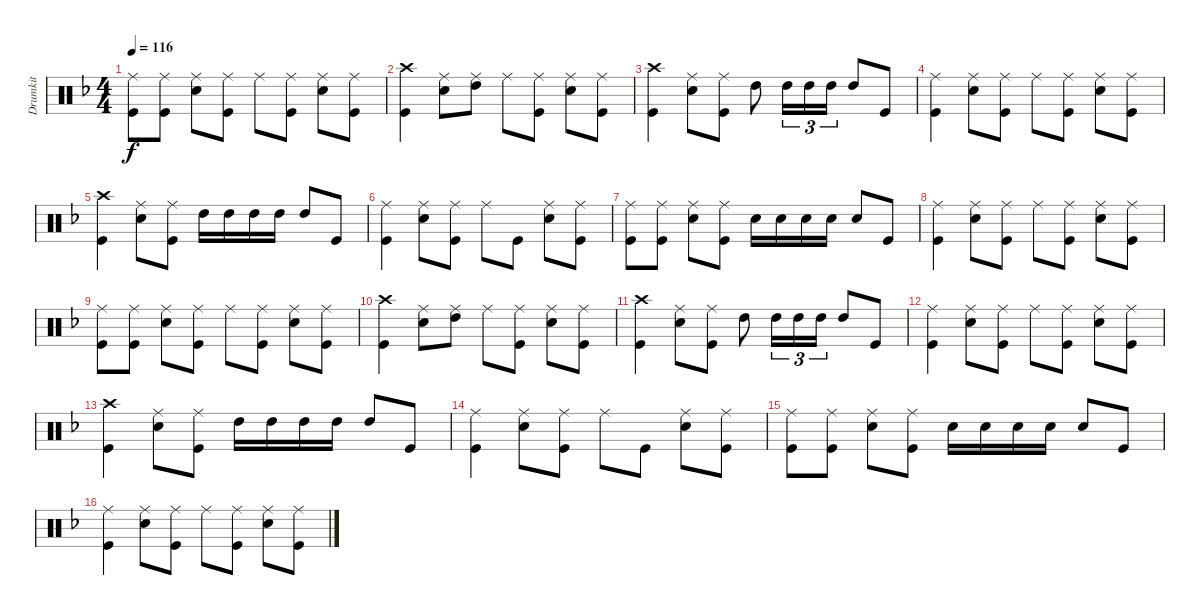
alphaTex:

\track ("Drumkit" "Drumkit") {instrument percussion}
\staff {score}
\articulation defaults
\ts (4 4)
\tempo 116
\clef neutral
\ks dminor
("Ride (middle)" "Kick (hit)").8{dy f} ("Ride (middle)" "Kick (hit)").8 ("Ride (middle)" "Snare (hit) 2").8 ("Ride (middle)" "Kick (hit)").8 "Ride (middle)".8 ("Ride (middle)" "Kick (hit)").8 ("Ride (middle)" "Snare (hit) 2").8 ("Ride (middle)" "Kick (hit)").8 |
("Crash high (hit)" "Kick (hit)").4 ("Ride (middle)" "Snare (hit) 2").8 ("Ride (middle)" "High Tom (hit)").8 "Ride (middle)".8 ("Ride (middle)" "Kick (hit)").8 ("Ride (middle)" "Snare (hit) 2").8 ("Ride (middle)" "Kick (hit)").8 |
("Crash high (hit)" "Kick (hit)").4 ("Ride (middle)" "Snare (hit) 2").8 ("Ride (middle)" "Kick (hit)").8 "High Tom (hit)".8 "High Tom (hit)".16{tu (3 2)} "High Tom (hit)".16{tu (3 2)} "High Tom (hit)".16{tu (3 2)} "High Tom (hit)".8 "Kick (hit)".8 |
("Ride (middle)" "Kick (hit)").4 ("Ride (middle)" "Snare (hit) 2").8 ("Ride (middle)" "Kick (hit)").8 "Ride (middle)".8 ("Ride (middle)" "Kick (hit)").8 ("Ride (middle)" "Snare (hit) 2").8 ("Ride (middle)" "Kick (hit)").8 |
("Crash high (hit)" "Kick (hit)").4 ("Ride (middle)" "Snare (hit) 2").8 ("Ride (middle)" "Kick (hit)").8 "High Tom (hit)".16 "High Tom (hit)".16 "High Tom (hit)".16 "High Tom (hit)".16 "High Tom (hit)".8 "Kick (hit)".8 |
("Ride (middle)" "Kick (hit)").4 ("Ride (middle)" "Snare (hit) 2").8 ("Ride (middle)" "Kick (hit)").8 "Ride (middle)".8 "Kick (hit)".8 ("Ride (middle)" "Snare (hit) 2").8 ("Ride (middle)" "Kick (hit)").8 |
("Ride (middle)" "Kick (hit)").8 ("Ride (middle)" "Kick (hit)").8 ("Ride (middle)" "Snare (hit) 2").8 ("Ride (middle)" "Kick (hit)").8 "Snare (hit) 2".16 "Snare (hit) 2".16 "Snare (hit) 2".16 "Snare (hit) 2".16 "Snare (hit) 2".8 "Kick (hit)".8 |
("Ride (middle)" "Kick (hit)").4 ("Ride (middle)" "Snare (hit) 2").8 ("Ride (middle)" "Kick (hit)").8 "Ride (middle)".8 ("Ride (middle)" "Kick (hit)").8 ("Ride (middle)" "Snare (hit) 2").8 ("Ride (middle)" "Kick (hit)").8 |
("Ride (middle)" "Kick (hit)").8 ("Ride (middle)" "Kick (hit)").8 ("Ride (middle)" "Snare (hit) 2").8 ("Ride (middle)" "Kick (hit)").8 "Ride (middle)".8 ("Ride (middle)" "Kick (hit)").8 ("Ride (middle)" "Snare (hit) 2").8 ("Ride (middle)" "Kick (hit)").8 |
("Crash high (hit)" "Kick (hit)").4 ("Ride (middle)" "Snare (hit) 2").8 ("Ride (middle)" "High Tom (hit)").8 "Ride (middle)".8 ("Ride (middle)" "Kick (hit)").8 ("Ride (middle)" "Snare (hit) 2").8 ("Ride (middle)" "Kick (hit)").8 |
("Crash high (hit)" "Kick (hit)").4 ("Ride (middle)" "Snare (hit) 2").8 ("Ride (middle)" "Kick (hit)").8 "High Tom (hit)".8 "High Tom (hit)".16{tu (3 2)} "High Tom (hit)".16{tu (3 2)} "High Tom (hit)".16{tu (3 2)} "High Tom (hit)".8 "Kick (hit)".8 |
("Ride (middle)" "Kick (hit)").4 ("Ride (middle)" "Snare (hit) 2").8 ("Ride (middle)" "Kick (hit)").8 "Ride (middle)".8 ("Ride (middle)" "Kick (hit)").8 ("Ride (middle)" "Snare (hit) 2").8 ("Ride (middle)" "Kick (hit)").8 |
("Crash high (hit)" "Kick (hit)").4 ("Ride (middle)" "Snare (hit) 2").8 ("Ride (middle)" "Kick (hit)").8 "High Tom (hit)".16 "High Tom (hit)".16 "High Tom (hit)".16 "High Tom (hit)".16 "High Tom (hit)".8 "Kick (hit)".8 |
("Ride (middle)" "Kick (hit)").4 ("Ride (middle)" "Snare (hit) 2").8 ("Ride (middle)" "Kick (hit)").8 "Ride (middle)".8 "Kick (hit)".8 ("Ride (middle)" "Snare (hit) 2").8 ("Ride (middle)" "Kick (hit)").8 |
("Ride (middle)" "Kick (hit)").8 ("Ride (middle)" "Kick (hit)").8 ("Ride (middle)" "Snare (hit) 2").8 ("Ride (middle)" "Kick (hit)").8 "Snare (hit) 2".16 "Snare (hit) 2".16 "Snare (hit) 2".16 "Snare (hit) 2".16 "Snare (hit) 2".8 "Kick (hit)".8 |
("Ride (middle)" "Kick (hit)").4 ("Ride (middle)" "Snare (hit) 2").8 ("Ride (middle)" "Kick (hit)").8 "Ride (middle)".8 ("Ride (middle)" "Kick (hit)").8 ("Ride (middle)" "Snare (hit) 2").8 ("Ride (middle)" "Kick (hit)").8
